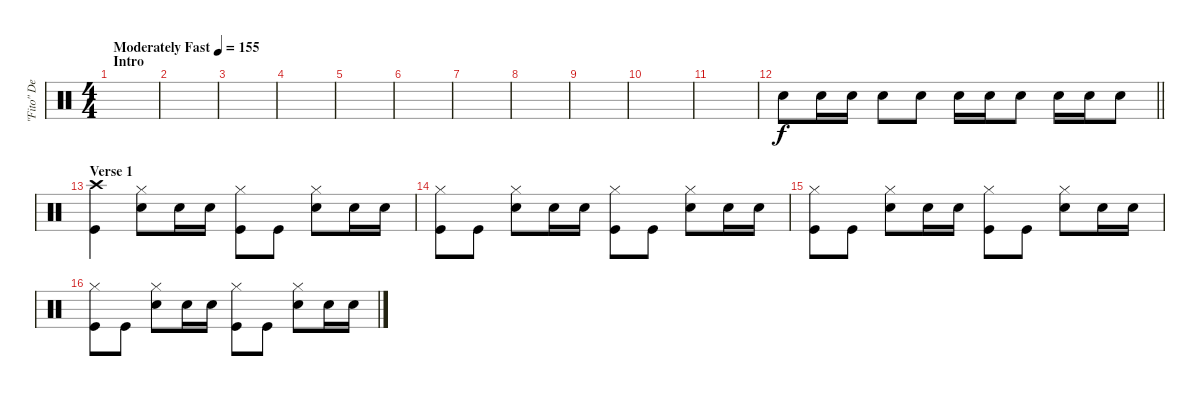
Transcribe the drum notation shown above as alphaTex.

\track ("\"Fito\" De La Parra" "\"Fito\" De ") {instrument percussion}
\staff {score}
\articulation defaults
\ts (4 4)
\section ("" "Intro")
\tempo (155 "Moderately Fast")
\clef neutral
\ks c
|
|
|
|
|
|
|
|
|
|
|
\barLineRight lightlight "Snare (hit) 2".8 "Snare (hit) 2".16 "Snare (hit) 2".16 "Snare (hit) 2".8 "Snare (hit) 2".8 "Snare (hit) 2".16 "Snare (hit) 2".16 "Snare (hit) 2".8 "Snare (hit) 2".16 "Snare (hit) 2".16 "Snare (hit) 2".8
|
\section ("" "Verse 1")
("Crash high (hit)" "Kick (hit)").4 ("Hi-Hat (closed)" "Snare (hit) 2").8 "Snare (hit) 2".16 "Snare (hit) 2".16 ("Hi-Hat (closed)" "Kick (hit)").8 "Kick (hit)".8 ("Hi-Hat (closed)" "Snare (hit) 2").8 "Snare (hit) 2".16 "Snare (hit) 2".16 |
("Hi-Hat (closed)" "Kick (hit)").8 "Kick (hit)".8 ("Hi-Hat (closed)" "Snare (hit) 2").8 "Snare (hit) 2".16 "Snare (hit) 2".16 ("Hi-Hat (closed)" "Kick (hit)").8 "Kick (hit)".8 ("Hi-Hat (closed)" "Snare (hit) 2").8 "Snare (hit) 2".16 "Snare (hit) 2".16 |
("Hi-Hat (closed)" "Kick (hit)").8 "Kick (hit)".8 ("Hi-Hat (closed)" "Snare (hit) 2").8 "Snare (hit) 2".16 "Snare (hit) 2".16 ("Hi-Hat (closed)" "Kick (hit)").8 "Kick (hit)".8 ("Hi-Hat (closed)" "Snare (hit) 2").8 "Snare (hit) 2".16 "Snare (hit) 2".16 |
("Hi-Hat (closed)" "Kick (hit)").8 "Kick (hit)".8 ("Hi-Hat (closed)" "Snare (hit) 2").8 "Snare (hit) 2".16 "Snare (hit) 2".16 ("Hi-Hat (closed)" "Kick (hit)").8 "Kick (hit)".8 ("Hi-Hat (closed)" "Snare (hit) 2").8 "Snare (hit) 2".16 "Snare (hit) 2".16
